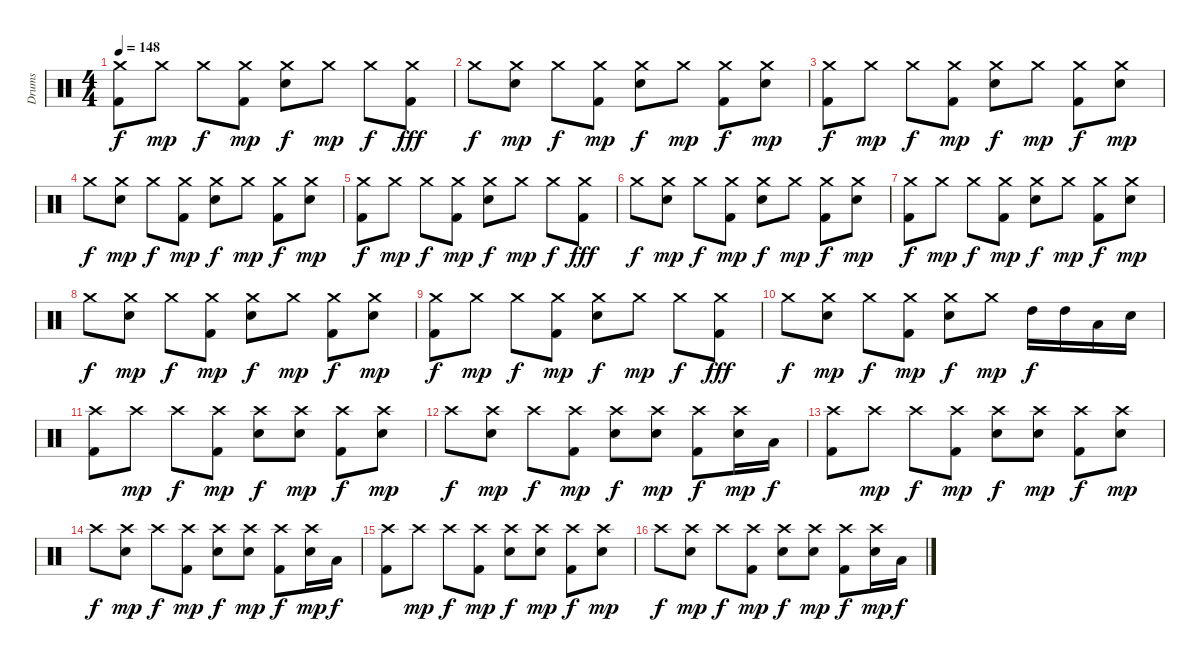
\track ("Drums" "Drums") {instrument percussion}
\staff {score}
\articulation defaults
\ts (4 4)
\tempo 148
\clef neutral
\ks c
("Crash medium (hit)" "Kick (hit) 2").8{dy f} "Crash medium (hit)".8{dy mp} "Crash medium (hit)".8{dy f} ("Crash medium (hit)" "Kick (hit) 2").8{dy mp} ("Crash medium (hit)" "Snare (hit) 2").8{dy f} "Crash medium (hit)".8{dy mp} "Crash medium (hit)".8{dy f} ("Crash medium (hit)" "Kick (hit) 2").8{dy fff} |
"Crash medium (hit)".8{dy f} ("Crash medium (hit)" "Snare (hit) 2").8{dy mp} "Crash medium (hit)".8{dy f} ("Crash medium (hit)" "Kick (hit) 2").8{dy mp} ("Crash medium (hit)" "Snare (hit) 2").8{dy f} "Crash medium (hit)".8{dy mp} ("Crash medium (hit)" "Kick (hit) 2").8{dy f} ("Crash medium (hit)" "Snare (hit) 2").8{dy mp} |
("Crash medium (hit)" "Kick (hit) 2").8{dy f} "Crash medium (hit)".8{dy mp} "Crash medium (hit)".8{dy f} ("Crash medium (hit)" "Kick (hit) 2").8{dy mp} ("Crash medium (hit)" "Snare (hit) 2").8{dy f} "Crash medium (hit)".8{dy mp} ("Crash medium (hit)" "Kick (hit) 2").8{dy f} ("Crash medium (hit)" "Snare (hit) 2").8{dy mp} |
"Crash medium (hit)".8{dy f} ("Crash medium (hit)" "Snare (hit) 2").8{dy mp} "Crash medium (hit)".8{dy f} ("Crash medium (hit)" "Kick (hit) 2").8{dy mp} ("Crash medium (hit)" "Snare (hit) 2").8{dy f} "Crash medium (hit)".8{dy mp} ("Crash medium (hit)" "Kick (hit) 2").8{dy f} ("Crash medium (hit)" "Snare (hit) 2").8{dy mp} |
("Crash medium (hit)" "Kick (hit) 2").8{dy f} "Crash medium (hit)".8{dy mp} "Crash medium (hit)".8{dy f} ("Crash medium (hit)" "Kick (hit) 2").8{dy mp} ("Crash medium (hit)" "Snare (hit) 2").8{dy f} "Crash medium (hit)".8{dy mp} "Crash medium (hit)".8{dy f} ("Crash medium (hit)" "Kick (hit) 2").8{dy fff} |
"Crash medium (hit)".8{dy f} ("Crash medium (hit)" "Snare (hit) 2").8{dy mp} "Crash medium (hit)".8{dy f} ("Crash medium (hit)" "Kick (hit) 2").8{dy mp} ("Crash medium (hit)" "Snare (hit) 2").8{dy f} "Crash medium (hit)".8{dy mp} ("Crash medium (hit)" "Kick (hit) 2").8{dy f} ("Crash medium (hit)" "Snare (hit) 2").8{dy mp} |
("Crash medium (hit)" "Kick (hit) 2").8{dy f} "Crash medium (hit)".8{dy mp} "Crash medium (hit)".8{dy f} ("Crash medium (hit)" "Kick (hit) 2").8{dy mp} ("Crash medium (hit)" "Snare (hit) 2").8{dy f} "Crash medium (hit)".8{dy mp} ("Crash medium (hit)" "Kick (hit) 2").8{dy f} ("Crash medium (hit)" "Snare (hit) 2").8{dy mp} |
"Crash medium (hit)".8{dy f} ("Crash medium (hit)" "Snare (hit) 2").8{dy mp} "Crash medium (hit)".8{dy f} ("Crash medium (hit)" "Kick (hit) 2").8{dy mp} ("Crash medium (hit)" "Snare (hit) 2").8{dy f} "Crash medium (hit)".8{dy mp} ("Crash medium (hit)" "Kick (hit) 2").8{dy f} ("Crash medium (hit)" "Snare (hit) 2").8{dy mp} |
("Crash medium (hit)" "Kick (hit) 2").8{dy f} "Crash medium (hit)".8{dy mp} "Crash medium (hit)".8{dy f} ("Crash medium (hit)" "Kick (hit) 2").8{dy mp} ("Crash medium (hit)" "Snare (hit) 2").8{dy f} "Crash medium (hit)".8{dy mp} "Crash medium (hit)".8{dy f} ("Crash medium (hit)" "Kick (hit) 2").8{dy fff} |
"Crash medium (hit)".8{dy f} ("Crash medium (hit)" "Snare (hit) 2").8{dy mp} "Crash medium (hit)".8{dy f} ("Crash medium (hit)" "Kick (hit) 2").8{dy mp} ("Crash medium (hit)" "Snare (hit) 2").8{dy f} "Crash medium (hit)".8{dy mp} "High Tom (hit)".16{dy f} "High Tom (hit)".16 "Low Tom (hit)".16 "Snare (hit) 2".16 |
("Crash high (hit)" "Kick (hit) 2").8 "Crash high (hit)".8{dy mp} "Crash high (hit)".8{dy f} ("Crash high (hit)" "Kick (hit) 2").8{dy mp} ("Crash high (hit)" "Snare (hit) 2").8{dy f} ("Crash high (hit)" "Snare (hit) 2").8{dy mp} ("Crash high (hit)" "Kick (hit) 2").8{dy f} ("Crash high (hit)" "Snare (hit) 2").8{dy mp} |
"Crash high (hit)".8{dy f} ("Crash high (hit)" "Snare (hit) 2").8{dy mp} "Crash high (hit)".8{dy f} ("Crash high (hit)" "Kick (hit) 2").8{dy mp} ("Crash high (hit)" "Snare (hit) 2").8{dy f} ("Crash high (hit)" "Snare (hit) 2").8{dy mp} ("Crash high (hit)" "Kick (hit) 2").8{dy f} ("Crash high (hit)" "Snare (hit) 2").16{dy mp} "Low Tom (hit)".16{dy f} |
("Crash high (hit)" "Kick (hit) 2").8 "Crash high (hit)".8{dy mp} "Crash high (hit)".8{dy f} ("Crash high (hit)" "Kick (hit) 2").8{dy mp} ("Crash high (hit)" "Snare (hit) 2").8{dy f} ("Crash high (hit)" "Snare (hit) 2").8{dy mp} ("Crash high (hit)" "Kick (hit) 2").8{dy f} ("Crash high (hit)" "Snare (hit) 2").8{dy mp} |
"Crash high (hit)".8{dy f} ("Crash high (hit)" "Snare (hit) 2").8{dy mp} "Crash high (hit)".8{dy f} ("Crash high (hit)" "Kick (hit) 2").8{dy mp} ("Crash high (hit)" "Snare (hit) 2").8{dy f} ("Crash high (hit)" "Snare (hit) 2").8{dy mp} ("Crash high (hit)" "Kick (hit) 2").8{dy f} ("Crash high (hit)" "Snare (hit) 2").16{dy mp} "Low Tom (hit)".16{dy f} |
("Crash high (hit)" "Kick (hit) 2").8 "Crash high (hit)".8{dy mp} "Crash high (hit)".8{dy f} ("Crash high (hit)" "Kick (hit) 2").8{dy mp} ("Crash high (hit)" "Snare (hit) 2").8{dy f} ("Crash high (hit)" "Snare (hit) 2").8{dy mp} ("Crash high (hit)" "Kick (hit) 2").8{dy f} ("Crash high (hit)" "Snare (hit) 2").8{dy mp} |
"Crash high (hit)".8{dy f} ("Crash high (hit)" "Snare (hit) 2").8{dy mp} "Crash high (hit)".8{dy f} ("Crash high (hit)" "Kick (hit) 2").8{dy mp} ("Crash high (hit)" "Snare (hit) 2").8{dy f} ("Crash high (hit)" "Snare (hit) 2").8{dy mp} ("Crash high (hit)" "Kick (hit) 2").8{dy f} ("Crash high (hit)" "Snare (hit) 2").16{dy mp} "Low Tom (hit)".16{dy f}
